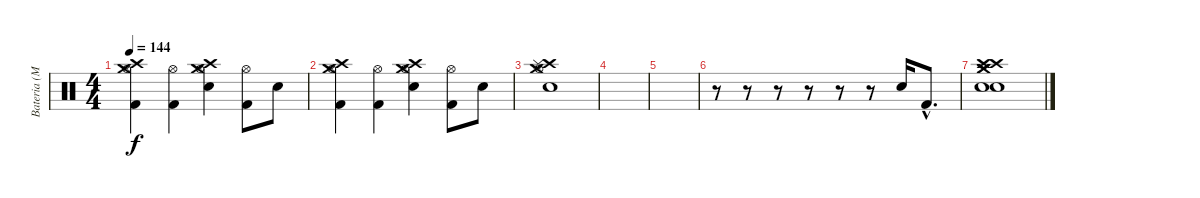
\track ("Bateria (Matt)" "Bateria (M") {instrument percussion}
\staff {score}
\articulation defaults
\ts (4 4)
\tempo 144
\clef neutral
\ks c
("Crash medium (hit)" "Crash high (hit)" "Hi-Hat (open)" "Kick (hit) 2").4{dy f} ("Hi-Hat (open)" "Kick (hit) 2").4 ("Crash medium (hit)" "Crash high (hit)" "Hi-Hat (open)" "Snare (hit) 2").4 ("Hi-Hat (open)" "Kick (hit) 2").8 "Snare (hit) 2".8 |
("Crash medium (hit)" "Crash high (hit)" "Hi-Hat (open)" "Kick (hit) 2").4 ("Hi-Hat (open)" "Kick (hit) 2").4 ("Crash medium (hit)" "Crash high (hit)" "Hi-Hat (open)" "Snare (hit) 2").4 ("Hi-Hat (open)" "Kick (hit) 2").8 "Snare (hit) 2".8 |
("Crash medium (hit)" "Crash high (hit)" "Splash (hit)" "Hi-Hat (open)" "Snare (hit) 2").1 |
|
|
r.8 r.8 r.8 r.8 r.8 r.8 "Snare (hit) 2".16 "Kick (hit) 2"{hac}.8{d} |
("Crash medium (hit)" "Crash medium (hit)" "Crash high (hit)" "Crash high (hit)" "Snare (hit) 2" "Snare (hit) 2").1
